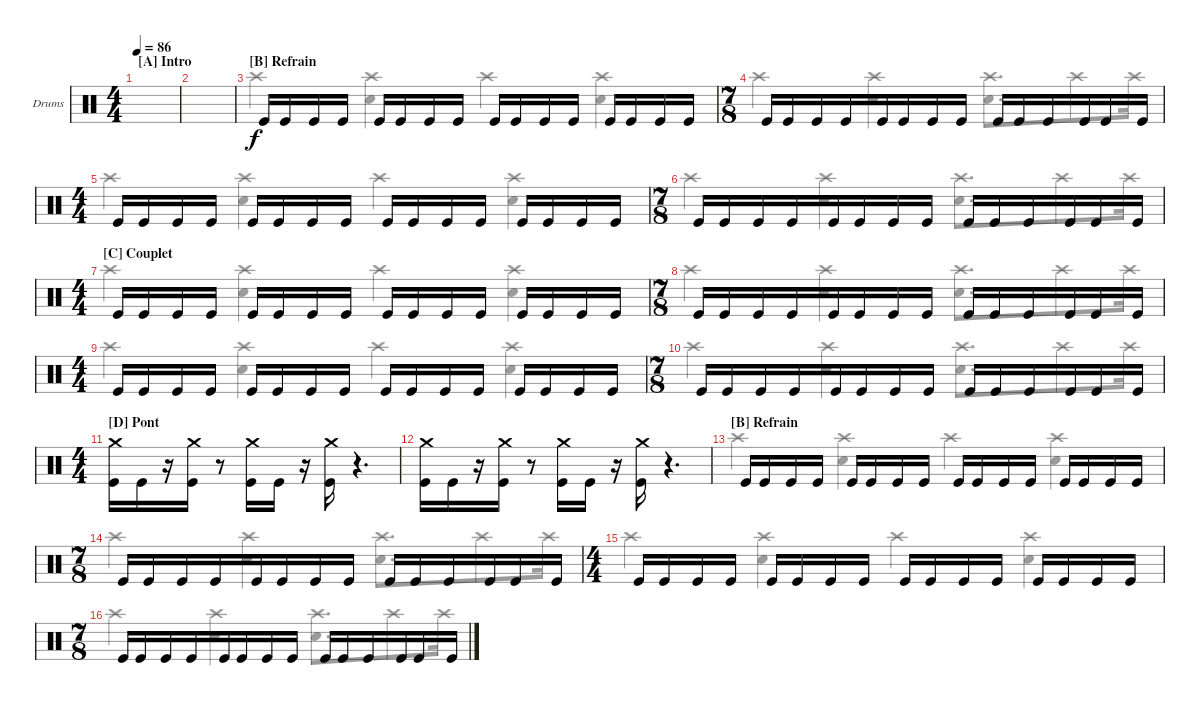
\defaultSystemsLayout 4
\bracketExtendMode groupsimilarinstruments
\firstSystemTrackNameOrientation horizontal
\otherSystemsTrackNameOrientation horizontal
\track ("Drumkit" "Drums") {instrument percussion}
\staff {score}
\articulation defaults
\voice
\ts (4 4)
\section ("A" "Intro")
\tempo 86
\clef neutral
\ks c
|
|
\section ("B" "Refrain")
"Kick (hit)".16 "Kick (hit)".16 "Kick (hit)".16 "Kick (hit)".16 "Kick (hit)".16 "Kick (hit)".16 "Kick (hit)".16 "Kick (hit)".16 "Kick (hit)".16 "Kick (hit)".16 "Kick (hit)".16 "Kick (hit)".16 "Kick (hit)".16 "Kick (hit)".16 "Kick (hit)".16 "Kick (hit)".16 |
\ts (7 8)
"Kick (hit)".16 "Kick (hit)".16 "Kick (hit)".16 "Kick (hit)".16 "Kick (hit)".16 "Kick (hit)".16 "Kick (hit)".16 "Kick (hit)".16 "Kick (hit)".16 "Kick (hit)".16 "Kick (hit)".16 "Kick (hit)".16 "Kick (hit)".16 "Kick (hit)".16 |
\ts (4 4)
"Kick (hit)".16 "Kick (hit)".16 "Kick (hit)".16 "Kick (hit)".16 "Kick (hit)".16 "Kick (hit)".16 "Kick (hit)".16 "Kick (hit)".16 "Kick (hit)".16 "Kick (hit)".16 "Kick (hit)".16 "Kick (hit)".16 "Kick (hit)".16 "Kick (hit)".16 "Kick (hit)".16 "Kick (hit)".16 |
\ts (7 8)
"Kick (hit)".16 "Kick (hit)".16 "Kick (hit)".16 "Kick (hit)".16 "Kick (hit)".16 "Kick (hit)".16 "Kick (hit)".16 "Kick (hit)".16 "Kick (hit)".16 "Kick (hit)".16 "Kick (hit)".16 "Kick (hit)".16 "Kick (hit)".16 "Kick (hit)".16 |
\ts (4 4)
\section ("C" "Couplet")
"Kick (hit)".16 "Kick (hit)".16 "Kick (hit)".16 "Kick (hit)".16 "Kick (hit)".16 "Kick (hit)".16 "Kick (hit)".16 "Kick (hit)".16 "Kick (hit)".16 "Kick (hit)".16 "Kick (hit)".16 "Kick (hit)".16 "Kick (hit)".16 "Kick (hit)".16 "Kick (hit)".16 "Kick (hit)".16 |
\ts (7 8)
"Kick (hit)".16 "Kick (hit)".16 "Kick (hit)".16 "Kick (hit)".16 "Kick (hit)".16 "Kick (hit)".16 "Kick (hit)".16 "Kick (hit)".16 "Kick (hit)".16 "Kick (hit)".16 "Kick (hit)".16 "Kick (hit)".16 "Kick (hit)".16 "Kick (hit)".16 |
\ts (4 4)
"Kick (hit)".16 "Kick (hit)".16 "Kick (hit)".16 "Kick (hit)".16 "Kick (hit)".16 "Kick (hit)".16 "Kick (hit)".16 "Kick (hit)".16 "Kick (hit)".16 "Kick (hit)".16 "Kick (hit)".16 "Kick (hit)".16 "Kick (hit)".16 "Kick (hit)".16 "Kick (hit)".16 "Kick (hit)".16 |
\ts (7 8)
"Kick (hit)".16 "Kick (hit)".16 "Kick (hit)".16 "Kick (hit)".16 "Kick (hit)".16 "Kick (hit)".16 "Kick (hit)".16 "Kick (hit)".16 "Kick (hit)".16 "Kick (hit)".16 "Kick (hit)".16 "Kick (hit)".16 "Kick (hit)".16 "Kick (hit)".16 |
\ts (4 4)
\section ("D" "Pont")
("Kick (hit)" "Crash medium (hit)").16 "Kick (hit)".16 r.16 ("Kick (hit)" "Crash medium (hit)").16 r.8 ("Kick (hit)" "Crash medium (hit)").16 "Kick (hit)".16 r.16 ("Kick (hit)" "Crash medium (hit)").16 r.4{d} |
("Kick (hit)" "Crash medium (hit)").16 "Kick (hit)".16 r.16 ("Kick (hit)" "Crash medium (hit)").16 r.8 ("Kick (hit)" "Crash medium (hit)").16 "Kick (hit)".16 r.16 ("Kick (hit)" "Crash medium (hit)").16 r.4{d} |
\section ("B" "Refrain")
"Kick (hit)".16 "Kick (hit)".16 "Kick (hit)".16 "Kick (hit)".16 "Kick (hit)".16 "Kick (hit)".16 "Kick (hit)".16 "Kick (hit)".16 "Kick (hit)".16 "Kick (hit)".16 "Kick (hit)".16 "Kick (hit)".16 "Kick (hit)".16 "Kick (hit)".16 "Kick (hit)".16 "Kick (hit)".16 |
\ts (7 8)
"Kick (hit)".16 "Kick (hit)".16 "Kick (hit)".16 "Kick (hit)".16 "Kick (hit)".16 "Kick (hit)".16 "Kick (hit)".16 "Kick (hit)".16 "Kick (hit)".16 "Kick (hit)".16 "Kick (hit)".16 "Kick (hit)".16 "Kick (hit)".16 "Kick (hit)".16 |
\ts (4 4)
"Kick (hit)".16 "Kick (hit)".16 "Kick (hit)".16 "Kick (hit)".16 "Kick (hit)".16 "Kick (hit)".16 "Kick (hit)".16 "Kick (hit)".16 "Kick (hit)".16 "Kick (hit)".16 "Kick (hit)".16 "Kick (hit)".16 "Kick (hit)".16 "Kick (hit)".16 "Kick (hit)".16 "Kick (hit)".16 |
\ts (7 8)
"Kick (hit)".16 "Kick (hit)".16 "Kick (hit)".16 "Kick (hit)".16 "Kick (hit)".16 "Kick (hit)".16 "Kick (hit)".16 "Kick (hit)".16 "Kick (hit)".16 "Kick (hit)".16 "Kick (hit)".16 "Kick (hit)".16 "Kick (hit)".16 "Kick (hit)".16
\voice
\clef neutral
\ottava regular
\simile none
\ks c
|
|
"Crash high (hit)".4 ("Crash high (hit)" "Snare (hit) 2").4 "Crash high (hit)".4 ("Crash high (hit)" "Snare (hit) 2").4 |
"Crash high (hit)".4 ("Crash high (hit)" "Snare (hit) 2").4 ("Crash high (hit)" "Snare (hit) 2").8{d} "Crash high (hit)".8 "Crash high (hit)".16 |
"Crash high (hit)".4 ("Crash high (hit)" "Snare (hit) 2").4 "Crash high (hit)".4 ("Crash high (hit)" "Snare (hit) 2").4 |
"Crash high (hit)".4 ("Crash high (hit)" "Snare (hit) 2").4 ("Crash high (hit)" "Snare (hit) 2").8{d} "Crash high (hit)".8 "Crash high (hit)".16 |
"Crash high (hit)".4 ("Crash high (hit)" "Snare (hit) 2").4 "Crash high (hit)".4 ("Crash high (hit)" "Snare (hit) 2").4 |
"Crash high (hit)".4 ("Crash high (hit)" "Snare (hit) 2").4 ("Crash high (hit)" "Snare (hit) 2").8{d} "Crash high (hit)".8 "Crash high (hit)".16 |
"Crash high (hit)".4 ("Crash high (hit)" "Snare (hit) 2").4 "Crash high (hit)".4 ("Crash high (hit)" "Snare (hit) 2").4 |
"Crash high (hit)".4 ("Crash high (hit)" "Snare (hit) 2").4 ("Crash high (hit)" "Snare (hit) 2").8{d} "Crash high (hit)".8 "Crash high (hit)".16 |
|
|
"Crash high (hit)".4 ("Crash high (hit)" "Snare (hit) 2").4 "Crash high (hit)".4 ("Crash high (hit)" "Snare (hit) 2").4 |
"Crash high (hit)".4 ("Crash high (hit)" "Snare (hit) 2").4 ("Crash high (hit)" "Snare (hit) 2").8{d} "Crash high (hit)".8 "Crash high (hit)".16 |
"Crash high (hit)".4 ("Crash high (hit)" "Snare (hit) 2").4 "Crash high (hit)".4 ("Crash high (hit)" "Snare (hit) 2").4 |
"Crash high (hit)".4 ("Crash high (hit)" "Snare (hit) 2").4 ("Crash high (hit)" "Snare (hit) 2").8{d} "Crash high (hit)".8 "Crash high (hit)".16
